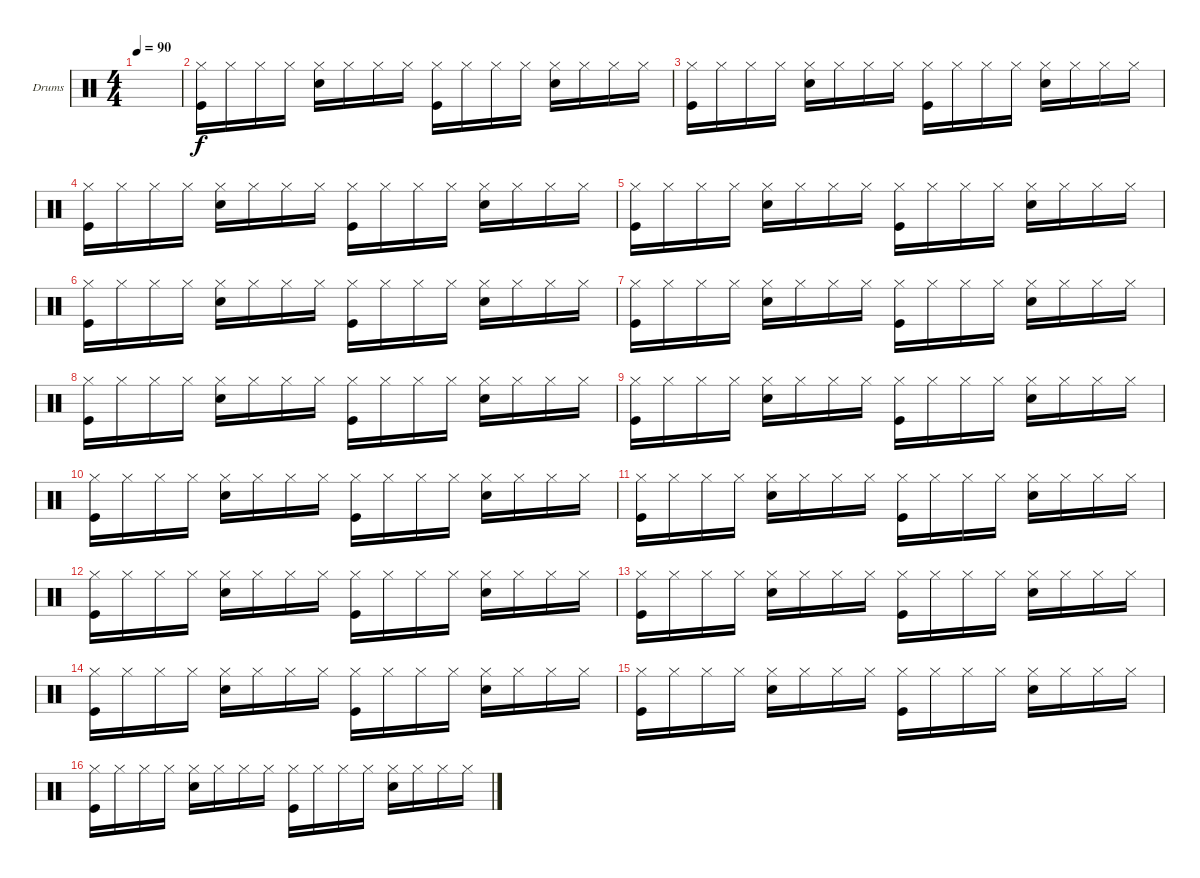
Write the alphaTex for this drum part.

\defaultSystemsLayout 4
\bracketExtendMode groupsimilarinstruments
\firstSystemTrackNameOrientation horizontal
\otherSystemsTrackNameOrientation horizontal
\track ("Drumkit" "Drums") {instrument percussion}
\staff {score}
\articulation defaults
\ts (4 4)
\tempo 90
\clef neutral
\scale
0.472222
\ks c
|
\scale
0.263889 ("Hi-Hat (closed)" "Kick (hit)").16 "Hi-Hat (closed)".16 "Hi-Hat (closed)".16 "Hi-Hat (closed)".16 ("Hi-Hat (closed)" "Snare (hit) 2").16 "Hi-Hat (closed)".16 "Hi-Hat (closed)".16 "Hi-Hat (closed)".16 ("Hi-Hat (closed)" "Kick (hit)").16 "Hi-Hat (closed)".16 "Hi-Hat (closed)".16 "Hi-Hat (closed)".16 ("Hi-Hat (closed)" "Snare (hit) 2").16 "Hi-Hat (closed)".16 "Hi-Hat (closed)".16 "Hi-Hat (closed)".16 |
\scale
0.263889 ("Hi-Hat (closed)" "Kick (hit)").16 "Hi-Hat (closed)".16 "Hi-Hat (closed)".16 "Hi-Hat (closed)".16 ("Hi-Hat (closed)" "Snare (hit) 2").16 "Hi-Hat (closed)".16 "Hi-Hat (closed)".16 "Hi-Hat (closed)".16 ("Hi-Hat (closed)" "Kick (hit)").16 "Hi-Hat (closed)".16 "Hi-Hat (closed)".16 "Hi-Hat (closed)".16 ("Hi-Hat (closed)" "Snare (hit) 2").16 "Hi-Hat (closed)".16 "Hi-Hat (closed)".16 "Hi-Hat (closed)".16 |
\scale
0.333333 ("Hi-Hat (closed)" "Kick (hit)").16 "Hi-Hat (closed)".16 "Hi-Hat (closed)".16 "Hi-Hat (closed)".16 ("Hi-Hat (closed)" "Snare (hit) 2").16 "Hi-Hat (closed)".16 "Hi-Hat (closed)".16 "Hi-Hat (closed)".16 ("Hi-Hat (closed)" "Kick (hit)").16 "Hi-Hat (closed)".16 "Hi-Hat (closed)".16 "Hi-Hat (closed)".16 ("Hi-Hat (closed)" "Snare (hit) 2").16 "Hi-Hat (closed)".16 "Hi-Hat (closed)".16 "Hi-Hat (closed)".16 |
\scale
0.333333 ("Hi-Hat (closed)" "Kick (hit)").16 "Hi-Hat (closed)".16 "Hi-Hat (closed)".16 "Hi-Hat (closed)".16 ("Hi-Hat (closed)" "Snare (hit) 2").16 "Hi-Hat (closed)".16 "Hi-Hat (closed)".16 "Hi-Hat (closed)".16 ("Hi-Hat (closed)" "Kick (hit)").16 "Hi-Hat (closed)".16 "Hi-Hat (closed)".16 "Hi-Hat (closed)".16 ("Hi-Hat (closed)" "Snare (hit) 2").16 "Hi-Hat (closed)".16 "Hi-Hat (closed)".16 "Hi-Hat (closed)".16 |
\scale
0.333333 ("Hi-Hat (closed)" "Kick (hit)").16 "Hi-Hat (closed)".16 "Hi-Hat (closed)".16 "Hi-Hat (closed)".16 ("Hi-Hat (closed)" "Snare (hit) 2").16 "Hi-Hat (closed)".16 "Hi-Hat (closed)".16 "Hi-Hat (closed)".16 ("Hi-Hat (closed)" "Kick (hit)").16 "Hi-Hat (closed)".16 "Hi-Hat (closed)".16 "Hi-Hat (closed)".16 ("Hi-Hat (closed)" "Snare (hit) 2").16 "Hi-Hat (closed)".16 "Hi-Hat (closed)".16 "Hi-Hat (closed)".16 |
\scale
0.333333 ("Hi-Hat (closed)" "Kick (hit)").16 "Hi-Hat (closed)".16 "Hi-Hat (closed)".16 "Hi-Hat (closed)".16 ("Hi-Hat (closed)" "Snare (hit) 2").16 "Hi-Hat (closed)".16 "Hi-Hat (closed)".16 "Hi-Hat (closed)".16 ("Hi-Hat (closed)" "Kick (hit)").16 "Hi-Hat (closed)".16 "Hi-Hat (closed)".16 "Hi-Hat (closed)".16 ("Hi-Hat (closed)" "Snare (hit) 2").16 "Hi-Hat (closed)".16 "Hi-Hat (closed)".16 "Hi-Hat (closed)".16 |
\scale
0.333333 ("Hi-Hat (closed)" "Kick (hit)").16 "Hi-Hat (closed)".16 "Hi-Hat (closed)".16 "Hi-Hat (closed)".16 ("Hi-Hat (closed)" "Snare (hit) 2").16 "Hi-Hat (closed)".16 "Hi-Hat (closed)".16 "Hi-Hat (closed)".16 ("Hi-Hat (closed)" "Kick (hit)").16 "Hi-Hat (closed)".16 "Hi-Hat (closed)".16 "Hi-Hat (closed)".16 ("Hi-Hat (closed)" "Snare (hit) 2").16 "Hi-Hat (closed)".16 "Hi-Hat (closed)".16 "Hi-Hat (closed)".16 |
\scale
0.333333 ("Hi-Hat (closed)" "Kick (hit)").16 "Hi-Hat (closed)".16 "Hi-Hat (closed)".16 "Hi-Hat (closed)".16 ("Hi-Hat (closed)" "Snare (hit) 2").16 "Hi-Hat (closed)".16 "Hi-Hat (closed)".16 "Hi-Hat (closed)".16 ("Hi-Hat (closed)" "Kick (hit)").16 "Hi-Hat (closed)".16 "Hi-Hat (closed)".16 "Hi-Hat (closed)".16 ("Hi-Hat (closed)" "Snare (hit) 2").16 "Hi-Hat (closed)".16 "Hi-Hat (closed)".16 "Hi-Hat (closed)".16 |
\scale
0.333333 ("Hi-Hat (closed)" "Kick (hit)").16 "Hi-Hat (closed)".16 "Hi-Hat (closed)".16 "Hi-Hat (closed)".16 ("Hi-Hat (closed)" "Snare (hit) 2").16 "Hi-Hat (closed)".16 "Hi-Hat (closed)".16 "Hi-Hat (closed)".16 ("Hi-Hat (closed)" "Kick (hit)").16 "Hi-Hat (closed)".16 "Hi-Hat (closed)".16 "Hi-Hat (closed)".16 ("Hi-Hat (closed)" "Snare (hit) 2").16 "Hi-Hat (closed)".16 "Hi-Hat (closed)".16 "Hi-Hat (closed)".16 |
\scale
0.333333 ("Hi-Hat (closed)" "Kick (hit)").16 "Hi-Hat (closed)".16 "Hi-Hat (closed)".16 "Hi-Hat (closed)".16 ("Hi-Hat (closed)" "Snare (hit) 2").16 "Hi-Hat (closed)".16 "Hi-Hat (closed)".16 "Hi-Hat (closed)".16 ("Hi-Hat (closed)" "Kick (hit)").16 "Hi-Hat (closed)".16 "Hi-Hat (closed)".16 "Hi-Hat (closed)".16 ("Hi-Hat (closed)" "Snare (hit) 2").16 "Hi-Hat (closed)".16 "Hi-Hat (closed)".16 "Hi-Hat (closed)".16 |
\scale
0.333333 ("Hi-Hat (closed)" "Kick (hit)").16 "Hi-Hat (closed)".16 "Hi-Hat (closed)".16 "Hi-Hat (closed)".16 ("Hi-Hat (closed)" "Snare (hit) 2").16 "Hi-Hat (closed)".16 "Hi-Hat (closed)".16 "Hi-Hat (closed)".16 ("Hi-Hat (closed)" "Kick (hit)").16 "Hi-Hat (closed)".16 "Hi-Hat (closed)".16 "Hi-Hat (closed)".16 ("Hi-Hat (closed)" "Snare (hit) 2").16 "Hi-Hat (closed)".16 "Hi-Hat (closed)".16 "Hi-Hat (closed)".16 |
\scale
0.333333 ("Hi-Hat (closed)" "Kick (hit)").16 "Hi-Hat (closed)".16 "Hi-Hat (closed)".16 "Hi-Hat (closed)".16 ("Hi-Hat (closed)" "Snare (hit) 2").16 "Hi-Hat (closed)".16 "Hi-Hat (closed)".16 "Hi-Hat (closed)".16 ("Hi-Hat (closed)" "Kick (hit)").16 "Hi-Hat (closed)".16 "Hi-Hat (closed)".16 "Hi-Hat (closed)".16 ("Hi-Hat (closed)" "Snare (hit) 2").16 "Hi-Hat (closed)".16 "Hi-Hat (closed)".16 "Hi-Hat (closed)".16 |
\scale
0.333333 ("Hi-Hat (closed)" "Kick (hit)").16 "Hi-Hat (closed)".16 "Hi-Hat (closed)".16 "Hi-Hat (closed)".16 ("Hi-Hat (closed)" "Snare (hit) 2").16 "Hi-Hat (closed)".16 "Hi-Hat (closed)".16 "Hi-Hat (closed)".16 ("Hi-Hat (closed)" "Kick (hit)").16 "Hi-Hat (closed)".16 "Hi-Hat (closed)".16 "Hi-Hat (closed)".16 ("Hi-Hat (closed)" "Snare (hit) 2").16 "Hi-Hat (closed)".16 "Hi-Hat (closed)".16 "Hi-Hat (closed)".16 |
\scale
0.333333 ("Hi-Hat (closed)" "Kick (hit)").16 "Hi-Hat (closed)".16 "Hi-Hat (closed)".16 "Hi-Hat (closed)".16 ("Hi-Hat (closed)" "Snare (hit) 2").16 "Hi-Hat (closed)".16 "Hi-Hat (closed)".16 "Hi-Hat (closed)".16 ("Hi-Hat (closed)" "Kick (hit)").16 "Hi-Hat (closed)".16 "Hi-Hat (closed)".16 "Hi-Hat (closed)".16 ("Hi-Hat (closed)" "Snare (hit) 2").16 "Hi-Hat (closed)".16 "Hi-Hat (closed)".16 "Hi-Hat (closed)".16 |
\scale
0.333333 ("Hi-Hat (closed)" "Kick (hit)").16 "Hi-Hat (closed)".16 "Hi-Hat (closed)".16 "Hi-Hat (closed)".16 ("Hi-Hat (closed)" "Snare (hit) 2").16 "Hi-Hat (closed)".16 "Hi-Hat (closed)".16 "Hi-Hat (closed)".16 ("Hi-Hat (closed)" "Kick (hit)").16 "Hi-Hat (closed)".16 "Hi-Hat (closed)".16 "Hi-Hat (closed)".16 ("Hi-Hat (closed)" "Snare (hit) 2").16 "Hi-Hat (closed)".16 "Hi-Hat (closed)".16 "Hi-Hat (closed)".16
